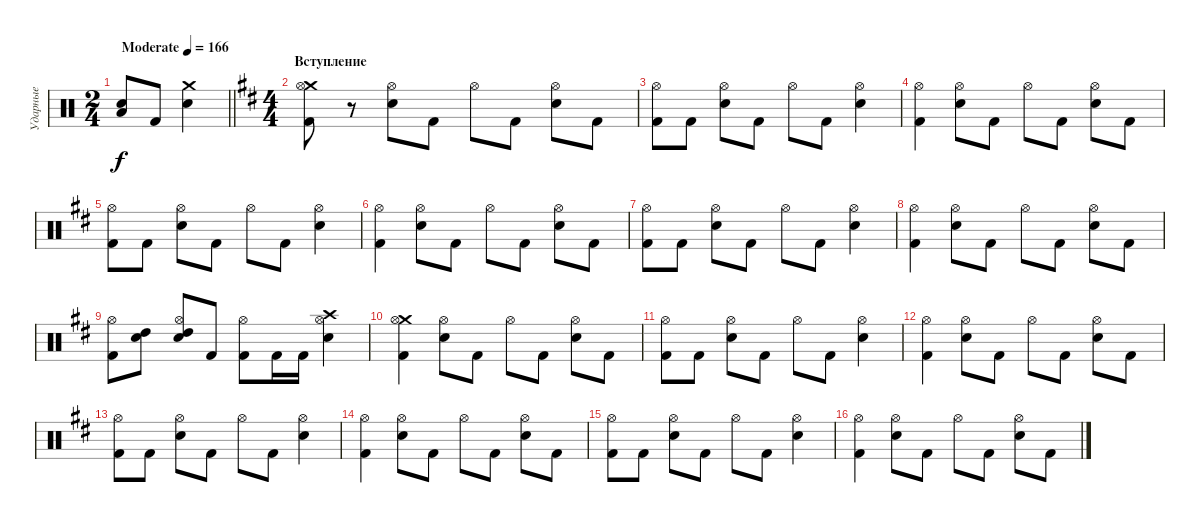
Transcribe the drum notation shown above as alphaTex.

\track ("Ударные" "Ударные") {instrument percussion}
\staff {score}
\articulation defaults
\ts (2 4)
\tempo (166 "Moderate")
\clef neutral
\barLineRight lightlight
\ks c
("Electric Snare (hit)" "Low Tom (hit)").8{dy f} "Kick (hit) 2".8 ("Crash medium (hit)" "Electric Snare (hit)").4 |
\ts (4 4)
\section ("" "Вступление")
\ks bminor
("Crash medium (hit)" "Kick (hit) 2" "Hi-Hat (open)").8 r.8 ("Electric Snare (hit)" "Hi-Hat (open)").8 "Kick (hit) 2".8 "Hi-Hat (open)".8 "Kick (hit) 2".8 ("Electric Snare (hit)" "Hi-Hat (open)").8 "Kick (hit) 2".8 |
("Kick (hit) 2" "Hi-Hat (open)").8 "Kick (hit) 2".8 ("Electric Snare (hit)" "Hi-Hat (open)").8 "Kick (hit) 2".8 "Hi-Hat (open)".8 "Kick (hit) 2".8 ("Electric Snare (hit)" "Hi-Hat (open)").4 |
("Kick (hit) 2" "Hi-Hat (open)").4 ("Electric Snare (hit)" "Hi-Hat (open)").8 "Kick (hit) 2".8 "Hi-Hat (open)".8 "Kick (hit) 2".8 ("Electric Snare (hit)" "Hi-Hat (open)").8 "Kick (hit) 2".8 |
("Kick (hit) 2" "Hi-Hat (open)").8 "Kick (hit) 2".8 ("Electric Snare (hit)" "Hi-Hat (open)").8 "Kick (hit) 2".8 "Hi-Hat (open)".8 "Kick (hit) 2".8 ("Electric Snare (hit)" "Hi-Hat (open)").4 |
("Kick (hit) 2" "Hi-Hat (open)").4 ("Electric Snare (hit)" "Hi-Hat (open)").8 "Kick (hit) 2".8 "Hi-Hat (open)".8 "Kick (hit) 2".8 ("Electric Snare (hit)" "Hi-Hat (open)").8 "Kick (hit) 2".8 |
("Kick (hit) 2" "Hi-Hat (open)").8 "Kick (hit) 2".8 ("Electric Snare (hit)" "Hi-Hat (open)").8 "Kick (hit) 2".8 "Hi-Hat (open)".8 "Kick (hit) 2".8 ("Electric Snare (hit)" "Hi-Hat (open)").4 |
("Kick (hit) 2" "Hi-Hat (open)").4 ("Electric Snare (hit)" "Hi-Hat (open)").8 "Kick (hit) 2".8 "Hi-Hat (open)".8 "Kick (hit) 2".8 ("Electric Snare (hit)" "Hi-Hat (open)").8 "Kick (hit) 2".8 |
("Kick (hit) 2" "Hi-Hat (open)").8 ("High Tom (hit)" "Electric Snare (hit)").8 ("High Tom (hit)" "Electric Snare (hit)" "Hi-Hat (open)").8 "Kick (hit) 2".8 ("Kick (hit) 2" "Hi-Hat (open)").8 "Kick (hit) 2".16 "Kick (hit) 2".16 ("Crash high (hit)" "Electric Snare (hit)" "Hi-Hat (open)").4 |
("Crash medium (hit)" "Kick (hit) 2" "Hi-Hat (open)").4 ("Electric Snare (hit)" "Hi-Hat (open)").8 "Kick (hit) 2".8 "Hi-Hat (open)".8 "Kick (hit) 2".8 ("Electric Snare (hit)" "Hi-Hat (open)").8 "Kick (hit) 2".8 |
("Kick (hit) 2" "Hi-Hat (open)").8 "Kick (hit) 2".8 ("Electric Snare (hit)" "Hi-Hat (open)").8 "Kick (hit) 2".8 "Hi-Hat (open)".8 "Kick (hit) 2".8 ("Electric Snare (hit)" "Hi-Hat (open)").4 |
("Kick (hit) 2" "Hi-Hat (open)").4 ("Electric Snare (hit)" "Hi-Hat (open)").8 "Kick (hit) 2".8 "Hi-Hat (open)".8 "Kick (hit) 2".8 ("Electric Snare (hit)" "Hi-Hat (open)").8 "Kick (hit) 2".8 |
("Kick (hit) 2" "Hi-Hat (open)").8 "Kick (hit) 2".8 ("Electric Snare (hit)" "Hi-Hat (open)").8 "Kick (hit) 2".8 "Hi-Hat (open)".8 "Kick (hit) 2".8 ("Electric Snare (hit)" "Hi-Hat (open)").4 |
("Kick (hit) 2" "Hi-Hat (open)").4 ("Electric Snare (hit)" "Hi-Hat (open)").8 "Kick (hit) 2".8 "Hi-Hat (open)".8 "Kick (hit) 2".8 ("Electric Snare (hit)" "Hi-Hat (open)").8 "Kick (hit) 2".8 |
("Kick (hit) 2" "Hi-Hat (open)").8 "Kick (hit) 2".8 ("Electric Snare (hit)" "Hi-Hat (open)").8 "Kick (hit) 2".8 "Hi-Hat (open)".8 "Kick (hit) 2".8 ("Electric Snare (hit)" "Hi-Hat (open)").4 |
("Kick (hit) 2" "Hi-Hat (open)").4 ("Electric Snare (hit)" "Hi-Hat (open)").8 "Kick (hit) 2".8 "Hi-Hat (open)".8 "Kick (hit) 2".8 ("Electric Snare (hit)" "Hi-Hat (open)").8 "Kick (hit) 2".8
